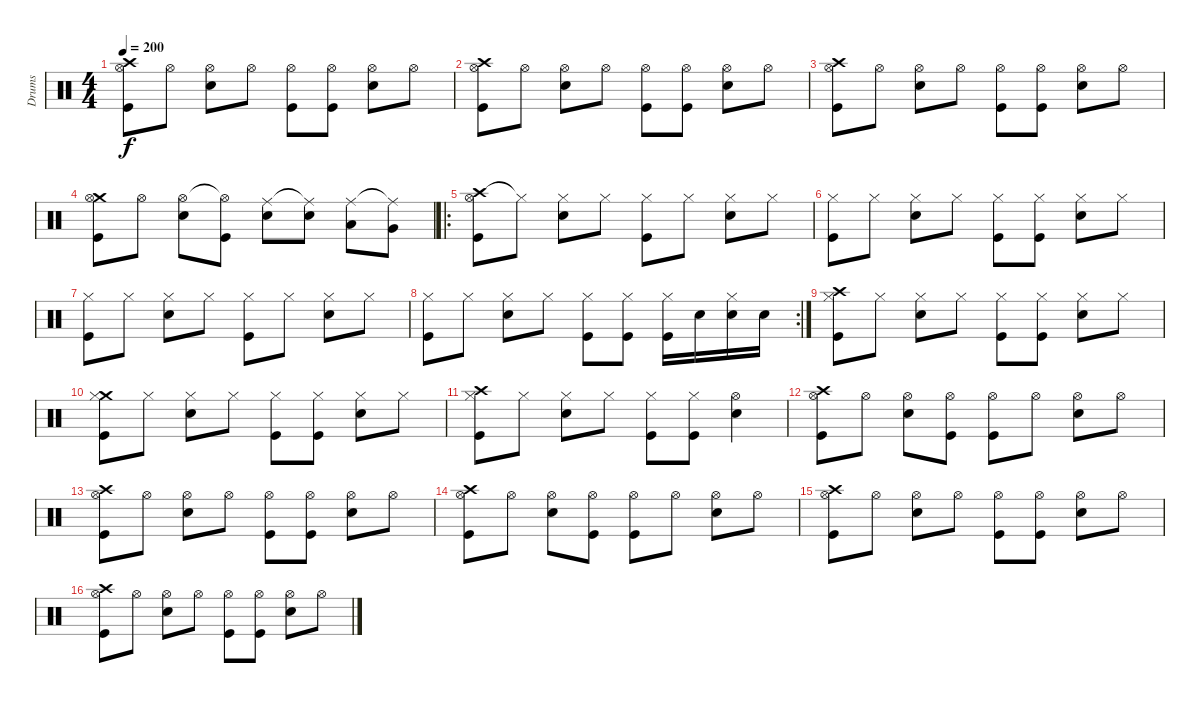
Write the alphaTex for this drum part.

\track ("Drums" "Drums") {instrument percussion}
\staff {score}
\articulation defaults
\ts (4 4)
\tempo 200
\clef neutral
\ks c
("Crash high (hit)" "Hi-Hat (open)" "Kick (hit)").8{dy f} "Hi-Hat (open)".8 ("Hi-Hat (open)" "Snare (hit) 2").8 "Hi-Hat (open)".8 ("Hi-Hat (open)" "Kick (hit)").8 ("Hi-Hat (open)" "Kick (hit)").8 ("Hi-Hat (open)" "Snare (hit) 2").8 "Hi-Hat (open)".8 |
("Crash high (hit)" "Hi-Hat (open)" "Kick (hit)").8 "Hi-Hat (open)".8 ("Hi-Hat (open)" "Snare (hit) 2").8 "Hi-Hat (open)".8 ("Hi-Hat (open)" "Kick (hit)").8 ("Hi-Hat (open)" "Kick (hit)").8 ("Hi-Hat (open)" "Snare (hit) 2").8 "Hi-Hat (open)".8 |
("Crash high (hit)" "Hi-Hat (open)" "Kick (hit)").8 "Hi-Hat (open)".8 ("Hi-Hat (open)" "Snare (hit) 2").8 "Hi-Hat (open)".8 ("Hi-Hat (open)" "Kick (hit)").8 ("Hi-Hat (open)" "Kick (hit)").8 ("Hi-Hat (open)" "Snare (hit) 2").8 "Hi-Hat (open)".8 |
("Crash medium (hit)" "Hi-Hat (open)" "Kick (hit)").8 "Hi-Hat (open)".8 ("Hi-Hat (open)" "Snare (hit) 2").8 ("Hi-Hat (open)"{t} "Kick (hit)").8 ("Ride (middle)" "Snare (hit) 2").8 ("Ride (middle)"{t} "Snare (hit) 2").8 ("Ride (middle)" "Low Tom (hit)").8 ("Ride (middle)"{t} "Very Low Tom (hit)").8 |
\ro
("Crash high (hit)" "Hi-Hat (open)" "Kick (hit)").8 "Hi-Hat (closed)"{t}.8 ("Hi-Hat (closed)" "Snare (hit) 2").8 "Hi-Hat (closed)".8 ("Hi-Hat (closed)" "Kick (hit)").8 "Hi-Hat (closed)".8 ("Hi-Hat (closed)" "Snare (hit) 2").8 "Hi-Hat (closed)".8 |
("Hi-Hat (closed)" "Kick (hit)").8 "Hi-Hat (closed)".8 ("Hi-Hat (closed)" "Snare (hit) 2").8 "Hi-Hat (closed)".8 ("Hi-Hat (closed)" "Kick (hit)").8 ("Hi-Hat (closed)" "Kick (hit)").8 ("Hi-Hat (closed)" "Snare (hit) 2").8 "Hi-Hat (closed)".8 |
("Hi-Hat (closed)" "Kick (hit)").8 "Hi-Hat (closed)".8 ("Hi-Hat (closed)" "Snare (hit) 2").8 "Hi-Hat (closed)".8 ("Hi-Hat (closed)" "Kick (hit)").8 "Hi-Hat (closed)".8 ("Hi-Hat (closed)" "Snare (hit) 2").8 "Hi-Hat (closed)".8 |
\rc 2
("Hi-Hat (closed)" "Kick (hit)").8 "Hi-Hat (closed)".8 ("Hi-Hat (closed)" "Snare (hit) 2").8 "Hi-Hat (closed)".8 ("Hi-Hat (closed)" "Kick (hit)").8 ("Hi-Hat (closed)" "Kick (hit)").8 ("Hi-Hat (closed)" "Kick (hit)").16 "Snare (hit) 2".16 ("Hi-Hat (closed)" "Snare (hit) 2").16 "Snare (hit) 2".16 |
("Crash high (hit)" "Hi-Hat (closed)" "Kick (hit)").8 "Hi-Hat (closed)".8 ("Hi-Hat (closed)" "Snare (hit) 2").8 "Hi-Hat (closed)".8 ("Hi-Hat (closed)" "Kick (hit)").8 ("Hi-Hat (closed)" "Kick (hit)").8 ("Hi-Hat (closed)" "Snare (hit) 2").8 "Hi-Hat (closed)".8 |
("Crash medium (hit)" "Hi-Hat (closed)" "Kick (hit)").8 "Hi-Hat (closed)".8 ("Hi-Hat (closed)" "Snare (hit) 2").8 "Hi-Hat (closed)".8 ("Hi-Hat (closed)" "Kick (hit)").8 ("Hi-Hat (closed)" "Kick (hit)").8 ("Hi-Hat (closed)" "Snare (hit) 2").8 "Hi-Hat (closed)".8 |
("Crash high (hit)" "Hi-Hat (closed)" "Kick (hit)").8 "Hi-Hat (closed)".8 ("Hi-Hat (closed)" "Snare (hit) 2").8 "Hi-Hat (closed)".8 ("Hi-Hat (closed)" "Kick (hit)").8 ("Hi-Hat (closed)" "Kick (hit)").8 ("Hi-Hat (open)" "Snare (hit) 2").4 |
("Crash high (hit)" "Hi-Hat (open)" "Kick (hit)").8 "Hi-Hat (open)".8 ("Hi-Hat (open)" "Snare (hit) 2").8 ("Hi-Hat (open)" "Kick (hit)").8 ("Hi-Hat (open)" "Kick (hit)").8 "Hi-Hat (open)".8 ("Hi-Hat (open)" "Snare (hit) 2").8 "Hi-Hat (open)".8 |
("Crash high (hit)" "Hi-Hat (open)" "Kick (hit)").8 "Hi-Hat (open)".8 ("Hi-Hat (open)" "Snare (hit) 2").8 "Hi-Hat (open)".8 ("Hi-Hat (open)" "Kick (hit)").8 ("Hi-Hat (open)" "Kick (hit)").8 ("Hi-Hat (open)" "Snare (hit) 2").8 "Hi-Hat (open)".8 |
("Crash high (hit)" "Hi-Hat (open)" "Kick (hit)").8 "Hi-Hat (open)".8 ("Hi-Hat (open)" "Snare (hit) 2").8 ("Hi-Hat (open)" "Kick (hit)").8 ("Hi-Hat (open)" "Kick (hit)").8 "Hi-Hat (open)".8 ("Hi-Hat (open)" "Snare (hit) 2").8 "Hi-Hat (open)".8 |
("Crash high (hit)" "Hi-Hat (open)" "Kick (hit)").8 "Hi-Hat (open)".8 ("Hi-Hat (open)" "Snare (hit) 2").8 "Hi-Hat (open)".8 ("Hi-Hat (open)" "Kick (hit)").8 ("Hi-Hat (open)" "Kick (hit)").8 ("Hi-Hat (open)" "Snare (hit) 2").8 "Hi-Hat (open)".8 |
("Crash high (hit)" "Hi-Hat (open)" "Kick (hit)").8 "Hi-Hat (open)".8 ("Hi-Hat (open)" "Snare (hit) 2").8 "Hi-Hat (open)".8 ("Hi-Hat (open)" "Kick (hit)").8 ("Hi-Hat (open)" "Kick (hit)").8 ("Hi-Hat (open)" "Snare (hit) 2").8 "Hi-Hat (open)".8
